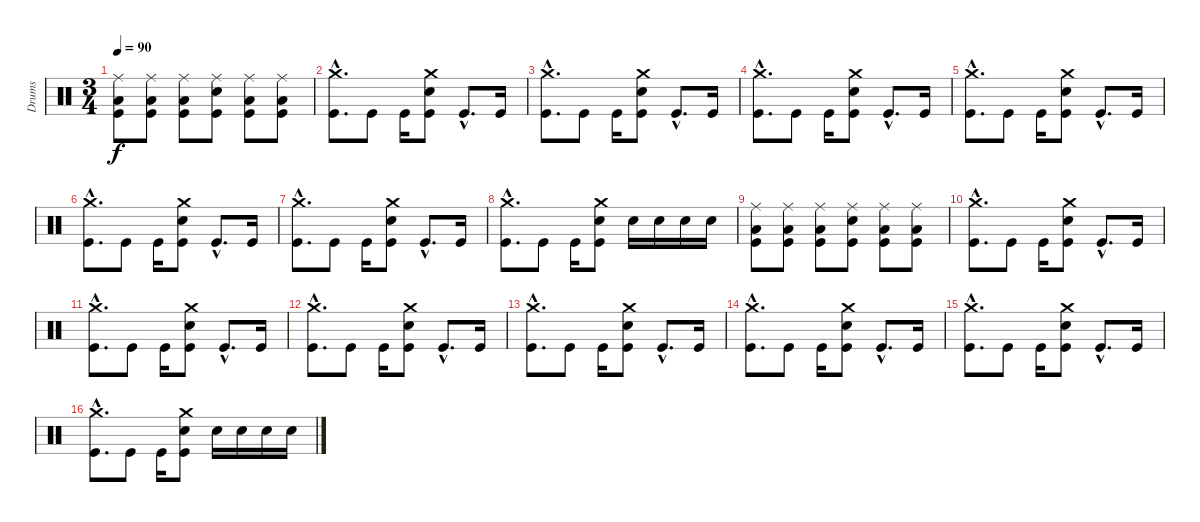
\track ("Drums" "Drums") {instrument percussion}
\staff {score}
\articulation defaults
\ts (3 4)
\tempo 90
\clef neutral
\ks c
("Ride (middle)" "Low Tom (hit)" "Kick (hit)").8{dy f} ("Ride (middle)" "Low Tom (hit)" "Kick (hit)").8 ("Ride (middle)" "Low Tom (hit)" "Kick (hit)").8 ("Ride (middle)" "Snare (hit) 2" "Kick (hit)").8 ("Ride (middle)" "Low Tom (hit)" "Kick (hit)").8 ("Ride (middle)" "Low Tom (hit)" "Kick (hit)").8 |
("Crash medium (hit)"{hac} "Kick (hit)"{hac}).8{d} "Kick (hit)".8 "Kick (hit)".16 ("Crash medium (hit)" "Snare (hit) 2" "Kick (hit)").8 "Kick (hit)"{hac}.8{d} "Kick (hit)".16 |
("Crash medium (hit)"{hac} "Kick (hit)"{hac}).8{d} "Kick (hit)".8 "Kick (hit)".16 ("Crash medium (hit)" "Snare (hit) 2" "Kick (hit)").8 "Kick (hit)"{hac}.8{d} "Kick (hit)".16 |
("Crash medium (hit)"{hac} "Kick (hit)"{hac}).8{d} "Kick (hit)".8 "Kick (hit)".16 ("Crash medium (hit)" "Snare (hit) 2" "Kick (hit)").8 "Kick (hit)"{hac}.8{d} "Kick (hit)".16 |
("Crash medium (hit)"{hac} "Kick (hit)"{hac}).8{d} "Kick (hit)".8 "Kick (hit)".16 ("Crash medium (hit)" "Snare (hit) 2" "Kick (hit)").8 "Kick (hit)"{hac}.8{d} "Kick (hit)".16 |
("Crash medium (hit)"{hac} "Kick (hit)"{hac}).8{d} "Kick (hit)".8 "Kick (hit)".16 ("Crash medium (hit)" "Snare (hit) 2" "Kick (hit)").8 "Kick (hit)"{hac}.8{d} "Kick (hit)".16 |
("Crash medium (hit)"{hac} "Kick (hit)"{hac}).8{d} "Kick (hit)".8 "Kick (hit)".16 ("Crash medium (hit)" "Snare (hit) 2" "Kick (hit)").8 "Kick (hit)"{hac}.8{d} "Kick (hit)".16 |
("Crash medium (hit)"{hac} "Kick (hit)"{hac}).8{d} "Kick (hit)".8 "Kick (hit)".16 ("Crash medium (hit)" "Snare (hit) 2" "Kick (hit)").8 "Snare (hit) 2".16 "Snare (hit) 2".16 "Snare (hit) 2".16 "Snare (hit) 2".16 |
("Ride (middle)" "Low Tom (hit)" "Kick (hit)").8 ("Ride (middle)" "Low Tom (hit)" "Kick (hit)").8 ("Ride (middle)" "Low Tom (hit)" "Kick (hit)").8 ("Ride (middle)" "Snare (hit) 2" "Kick (hit)").8 ("Ride (middle)" "Low Tom (hit)" "Kick (hit)").8 ("Ride (middle)" "Low Tom (hit)" "Kick (hit)").8 |
("Crash medium (hit)"{hac} "Kick (hit)"{hac}).8{d} "Kick (hit)".8 "Kick (hit)".16 ("Crash medium (hit)" "Snare (hit) 2" "Kick (hit)").8 "Kick (hit)"{hac}.8{d} "Kick (hit)".16 |
("Crash medium (hit)"{hac} "Kick (hit)"{hac}).8{d} "Kick (hit)".8 "Kick (hit)".16 ("Crash medium (hit)" "Snare (hit) 2" "Kick (hit)").8 "Kick (hit)"{hac}.8{d} "Kick (hit)".16 |
("Crash medium (hit)"{hac} "Kick (hit)"{hac}).8{d} "Kick (hit)".8 "Kick (hit)".16 ("Crash medium (hit)" "Snare (hit) 2" "Kick (hit)").8 "Kick (hit)"{hac}.8{d} "Kick (hit)".16 |
("Crash medium (hit)"{hac} "Kick (hit)"{hac}).8{d} "Kick (hit)".8 "Kick (hit)".16 ("Crash medium (hit)" "Snare (hit) 2" "Kick (hit)").8 "Kick (hit)"{hac}.8{d} "Kick (hit)".16 |
("Crash medium (hit)"{hac} "Kick (hit)"{hac}).8{d} "Kick (hit)".8 "Kick (hit)".16 ("Crash medium (hit)" "Snare (hit) 2" "Kick (hit)").8 "Kick (hit)"{hac}.8{d} "Kick (hit)".16 |
("Crash medium (hit)"{hac} "Kick (hit)"{hac}).8{d} "Kick (hit)".8 "Kick (hit)".16 ("Crash medium (hit)" "Snare (hit) 2" "Kick (hit)").8 "Kick (hit)"{hac}.8{d} "Kick (hit)".16 |
("Crash medium (hit)"{hac} "Kick (hit)"{hac}).8{d} "Kick (hit)".8 "Kick (hit)".16 ("Crash medium (hit)" "Snare (hit) 2" "Kick (hit)").8 "Snare (hit) 2".16 "Snare (hit) 2".16 "Snare (hit) 2".16 "Snare (hit) 2".16
